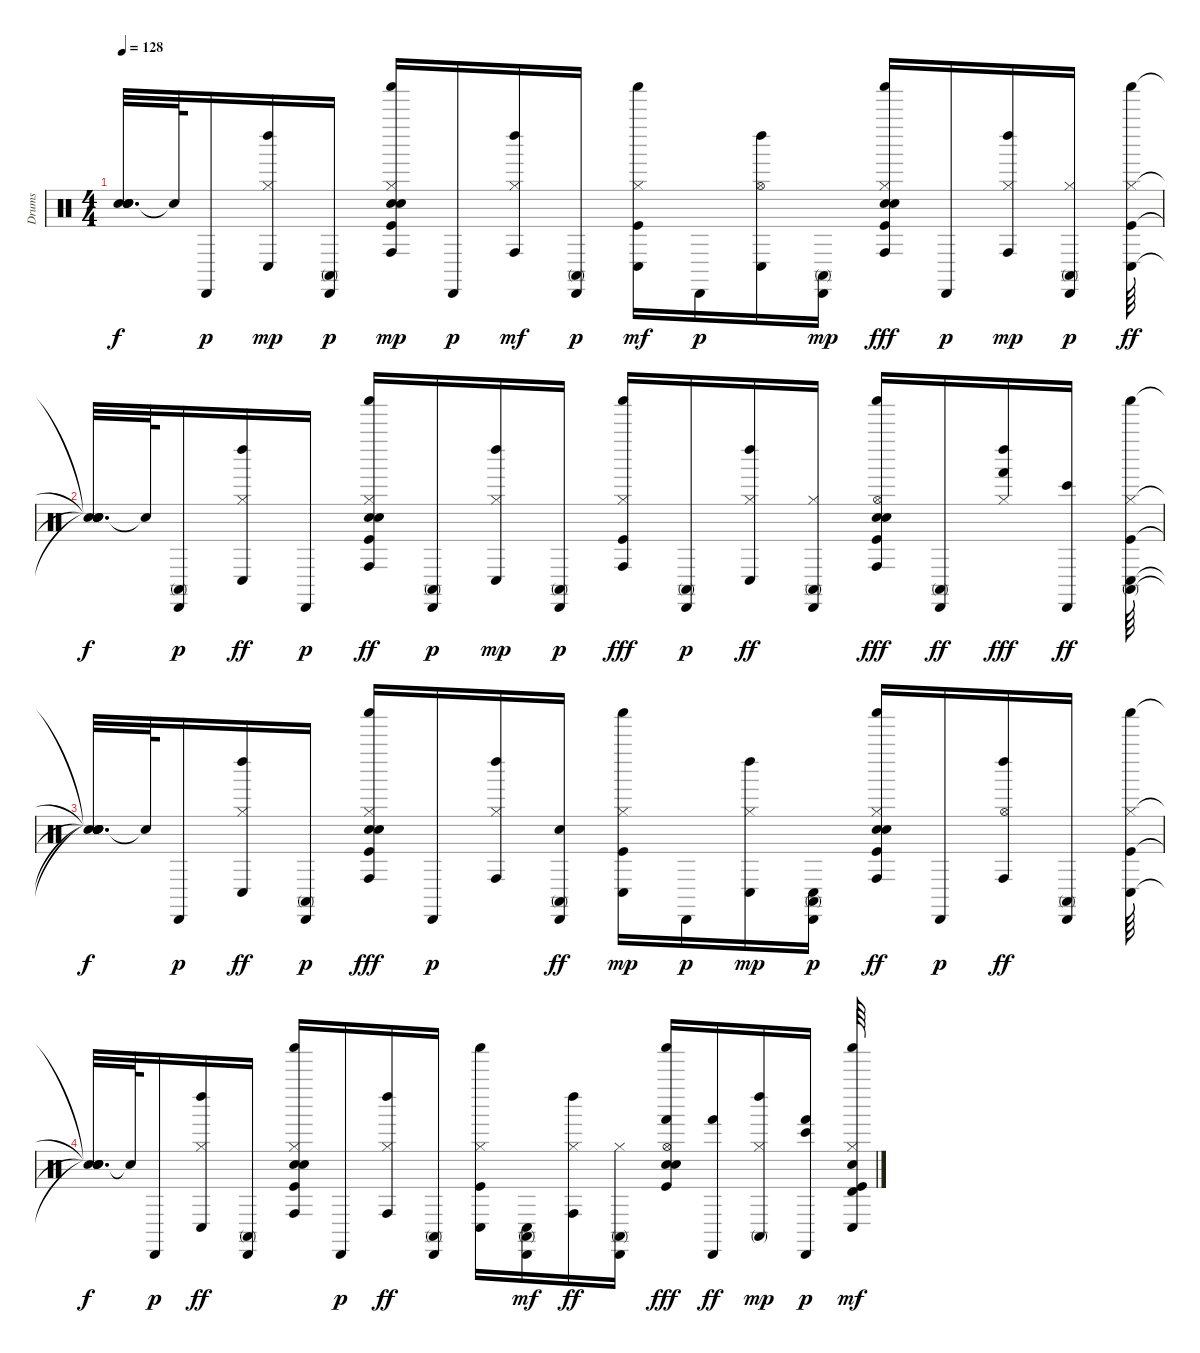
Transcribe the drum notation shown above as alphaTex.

\track ("Drums" "Drums") {instrument percussion}
\staff {score}
\articulation defaults
\ts (4 4)
\tempo 128
\clef neutral
\ks c
("Snare (hit)"{t} "Snare (hit)"{t} "Snare (hit)"{t} "Snare (hit)"{t}).32{d dy f} "Snare (hit)"{t}.64 "Cabasa (hit)".16{dy p} ("Hi-Hat (closed)" "Left Maraca (hit)" "Conga low (hit)").16{dy mp} ("Cabasa (hit)" "Conga high (mute)").16{dy p} ("Kick (hit)" "Snare (hit) 2" "Hand Clap (hit)" "Hi-Hat (closed)" "Shaker (hit)" "Conga high (hit)").16{dy mp} "Cabasa (hit)".16{dy p} ("Hi-Hat (closed)" "Left Maraca (hit)" "Conga high (hit)").16{dy mf} ("Cabasa (hit)" "Conga high (mute)").16{dy p} ("Kick (hit)" "Hi-Hat (closed)" "Shaker (hit)" "Conga low (hit)").16{dy mf} "Cabasa (hit)".16{dy p} ("Hi-Hat (open)" "Left Maraca (hit)" "Conga low (hit)").16 ("Cabasa (hit)" "Conga high (mute)").16{dy mp} ("Kick (hit)" "Snare (hit) 2" "Hand Clap (hit)" "Hi-Hat (closed)" "Shaker (hit)" "Conga high (hit)").16{dy fff} "Cabasa (hit)".16{dy p} ("Hi-Hat (closed)" "Left Maraca (hit)" "Conga high (hit)").16{dy mp} ("Hi-Hat (closed)" "Cabasa (hit)" "Conga high (mute)").16{dy p} ("Kick (hit)" "Hi-Hat (closed)" "Shaker (hit)" "Conga low (hit)").64{dy ff} |
("Snare (hit)"{t} "Snare (hit)"{t} "Snare (hit)"{t} "Snare (hit)"{t}).32{d dy f} "Snare (hit)"{t}.64 ("Cabasa (hit)" "Conga high (mute)").16{dy p} ("Hi-Hat (closed)" "Left Maraca (hit)" "Conga low (hit)").16{dy ff} "Cabasa (hit)".16{dy p} ("Kick (hit)" "Snare (hit) 2" "Hand Clap (hit)" "Hi-Hat (closed)" "Shaker (hit)" "Conga high (hit)").16{dy ff} ("Cabasa (hit)" "Conga high (mute)").16{dy p} ("Hi-Hat (closed)" "Left Maraca (hit)" "Conga low (hit)").16{dy mp} ("Cabasa (hit)" "Conga high (mute)").16{dy p} ("Kick (hit)" "Hi-Hat (closed)" "Shaker (hit)" "Conga high (hit)").16{dy fff} ("Cabasa (hit)" "Conga high (mute)").16{dy p} ("Hi-Hat (closed)" "Left Maraca (hit)" "Conga low (hit)").16{dy ff} ("Hi-Hat (closed)" "Cabasa (hit)" "Conga high (mute)").16 ("Kick (hit)" "Snare (hit) 2" "Hand Clap (hit)" "Hi-Hat (open)" "Shaker (hit)" "Conga high (hit)").16{dy fff} ("Cabasa (hit)" "Conga high (mute)").16{dy ff} ("Hi-Hat (closed)" "Left Maraca (hit)" "Hand (hit)").16{dy fff} ("Cabasa (hit)" "Bongo High (hit)").16{dy ff} ("Kick (hit)" "Hi-Hat (closed)" "Shaker (hit)" "Conga low (hit)" "Conga high (mute)").64 |
("Snare (hit)"{t} "Snare (hit)"{t} "Snare (hit)"{t} "Snare (hit)"{t} "Snare (hit)"{t}).32{d dy f} "Snare (hit)"{t}.64 "Cabasa (hit)".16{dy p} ("Hi-Hat (closed)" "Left Maraca (hit)" "Conga low (hit)").16{dy ff} ("Cabasa (hit)" "Conga high (mute)").16{dy p} ("Kick (hit)" "Snare (hit) 2" "Hand Clap (hit)" "Hi-Hat (closed)" "Shaker (hit)" "Conga high (hit)").16{dy fff} "Cabasa (hit)".16{dy p} ("Hi-Hat (closed)" "Left Maraca (hit)" "Conga high (hit)").16 ("Snare (hit) 2" "Cabasa (hit)" "Conga high (mute)").16{dy ff} ("Kick (hit)" "Hi-Hat (closed)" "Shaker (hit)" "Conga low (hit)").16{dy mp} "Cabasa (hit)".16{dy p} ("Hi-Hat (closed)" "Left Maraca (hit)" "Conga low (hit)").16{dy mp} ("Cabasa (hit)" "Conga high (mute)" "Conga low (hit)").16{dy p} ("Kick (hit)" "Snare (hit) 2" "Hand Clap (hit)" "Hi-Hat (closed)" "Shaker (hit)" "Conga high (hit)").16{dy ff} "Cabasa (hit)".16{dy p} ("Hi-Hat (open)" "Left Maraca (hit)" "Conga high (hit)").16{dy ff} ("Cabasa (hit)" "Conga high (mute)").16 ("Kick (hit)" "Hi-Hat (closed)" "Shaker (hit)" "Conga low (hit)").64 |
("Snare (hit)"{t} "Snare (hit)"{t} "Snare (hit)"{t} "Snare (hit)"{t}).32{d dy f} "Snare (hit)"{t}.64 "Cabasa (hit)".16{dy p} ("Hi-Hat (closed)" "Left Maraca (hit)" "Conga low (hit)").16{dy ff} ("Cabasa (hit)" "Conga high (mute)").16 ("Kick (hit)" "Snare (hit) 2" "Hand Clap (hit)" "Hi-Hat (closed)" "Shaker (hit)" "Conga high (hit)").16 "Cabasa (hit)".16{dy p} ("Hi-Hat (closed)" "Left Maraca (hit)" "Conga high (hit)").16{dy ff} ("Cabasa (hit)" "Conga high (mute)").16 ("Kick (hit)" "Hi-Hat (closed)" "Shaker (hit)" "Conga low (hit)").16 ("Cabasa (hit)" "Conga high (mute)" "Conga low (hit)").16{dy mf} ("Hi-Hat (closed)" "Left Maraca (hit)" "Conga high (hit)").16{dy ff} ("Hi-Hat (closed)" "Cabasa (hit)" "Conga high (mute)").16 ("Kick (hit)" "Snare (hit) 2" "Hand Clap (hit)" "Hi-Hat (open)" "Shaker (hit)" "Hand (hit)").16{dy fff} ("Cabasa (hit)" "Hand (hit)").16{dy ff} ("Hi-Hat (closed)" "Left Maraca (hit)" "Conga high (mute)").16{dy mp} ("Cabasa (hit)" "Hand (hit)" "Bongo High (hit)").16{dy p} ("Kick (hit)" "Snare (hit) 2" "Hi-Hat (closed)" "Shaker (hit)" "Conga low (hit)" "Timbale high (hit)").64{dy mf}
